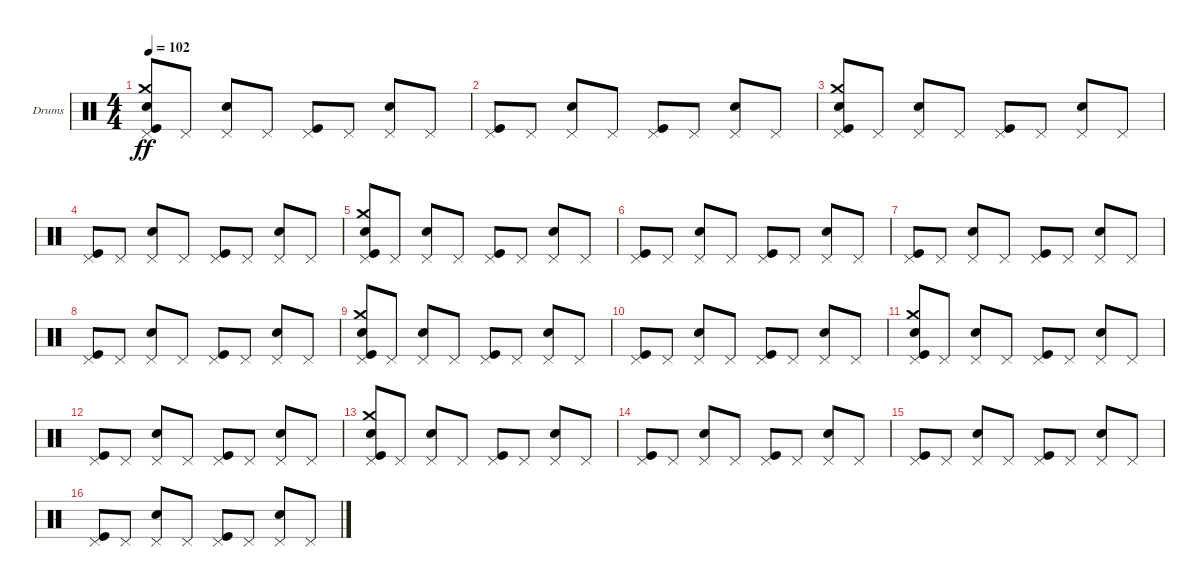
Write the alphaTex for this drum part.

\defaultSystemsLayout 4
\bracketExtendMode groupsimilarinstruments
\firstSystemTrackNameOrientation horizontal
\otherSystemsTrackNameOrientation horizontal
\track ("Е. Кулаков" "Drums") {instrument percussion}
\staff {score}
\articulation defaults
\ts (4 4)
\tempo 102
\clef neutral
\ks c
("Pedal Hi-Hat (hit)" "Kick (hit)" "Crash medium (hit)" "Snare (hit) 2").8{dy ff} "Pedal Hi-Hat (hit)".8 ("Pedal Hi-Hat (hit)" "Snare (hit) 2").8 "Pedal Hi-Hat (hit)".8 ("Pedal Hi-Hat (hit)" "Kick (hit)").8 "Pedal Hi-Hat (hit)".8 ("Pedal Hi-Hat (hit)" "Snare (hit) 2").8 "Pedal Hi-Hat (hit)".8 |
("Pedal Hi-Hat (hit)" "Kick (hit)").8 "Pedal Hi-Hat (hit)".8 ("Pedal Hi-Hat (hit)" "Snare (hit) 2").8 "Pedal Hi-Hat (hit)".8 ("Pedal Hi-Hat (hit)" "Kick (hit)").8 "Pedal Hi-Hat (hit)".8 ("Pedal Hi-Hat (hit)" "Snare (hit) 2").8 "Pedal Hi-Hat (hit)".8 |
("Pedal Hi-Hat (hit)" "Kick (hit)" "Crash medium (hit)" "Snare (hit) 2").8 "Pedal Hi-Hat (hit)".8 ("Pedal Hi-Hat (hit)" "Snare (hit) 2").8 "Pedal Hi-Hat (hit)".8 ("Pedal Hi-Hat (hit)" "Kick (hit)").8 "Pedal Hi-Hat (hit)".8 ("Pedal Hi-Hat (hit)" "Snare (hit) 2").8 "Pedal Hi-Hat (hit)".8 |
("Pedal Hi-Hat (hit)" "Kick (hit)").8 "Pedal Hi-Hat (hit)".8 ("Pedal Hi-Hat (hit)" "Snare (hit) 2").8 "Pedal Hi-Hat (hit)".8 ("Pedal Hi-Hat (hit)" "Kick (hit)").8 "Pedal Hi-Hat (hit)".8 ("Pedal Hi-Hat (hit)" "Snare (hit) 2").8 "Pedal Hi-Hat (hit)".8 |
("Pedal Hi-Hat (hit)" "Kick (hit)" "Snare (hit) 2" "Crash medium (hit)").8 "Pedal Hi-Hat (hit)".8 ("Pedal Hi-Hat (hit)" "Snare (hit) 2").8 "Pedal Hi-Hat (hit)".8 ("Pedal Hi-Hat (hit)" "Kick (hit)").8 "Pedal Hi-Hat (hit)".8 ("Pedal Hi-Hat (hit)" "Snare (hit) 2").8 "Pedal Hi-Hat (hit)".8 |
("Pedal Hi-Hat (hit)" "Kick (hit)").8 "Pedal Hi-Hat (hit)".8 ("Pedal Hi-Hat (hit)" "Snare (hit) 2").8 "Pedal Hi-Hat (hit)".8 ("Pedal Hi-Hat (hit)" "Kick (hit)").8 "Pedal Hi-Hat (hit)".8 ("Pedal Hi-Hat (hit)" "Snare (hit) 2").8 "Pedal Hi-Hat (hit)".8 |
("Pedal Hi-Hat (hit)" "Kick (hit)").8 "Pedal Hi-Hat (hit)".8 ("Pedal Hi-Hat (hit)" "Snare (hit) 2").8 "Pedal Hi-Hat (hit)".8 ("Pedal Hi-Hat (hit)" "Kick (hit)").8 "Pedal Hi-Hat (hit)".8 ("Pedal Hi-Hat (hit)" "Snare (hit) 2").8 "Pedal Hi-Hat (hit)".8 |
("Pedal Hi-Hat (hit)" "Kick (hit)").8 "Pedal Hi-Hat (hit)".8 ("Pedal Hi-Hat (hit)" "Snare (hit) 2").8 "Pedal Hi-Hat (hit)".8 ("Pedal Hi-Hat (hit)" "Kick (hit)").8 "Pedal Hi-Hat (hit)".8 ("Pedal Hi-Hat (hit)" "Snare (hit) 2").8 "Pedal Hi-Hat (hit)".8 |
("Pedal Hi-Hat (hit)" "Kick (hit)" "Crash medium (hit)" "Snare (hit) 2").8 "Pedal Hi-Hat (hit)".8 ("Pedal Hi-Hat (hit)" "Snare (hit) 2").8 "Pedal Hi-Hat (hit)".8 ("Pedal Hi-Hat (hit)" "Kick (hit)").8 "Pedal Hi-Hat (hit)".8 ("Pedal Hi-Hat (hit)" "Snare (hit) 2").8 "Pedal Hi-Hat (hit)".8 |
("Pedal Hi-Hat (hit)" "Kick (hit)").8 "Pedal Hi-Hat (hit)".8 ("Pedal Hi-Hat (hit)" "Snare (hit) 2").8 "Pedal Hi-Hat (hit)".8 ("Pedal Hi-Hat (hit)" "Kick (hit)").8 "Pedal Hi-Hat (hit)".8 ("Pedal Hi-Hat (hit)" "Snare (hit) 2").8 "Pedal Hi-Hat (hit)".8 |
("Pedal Hi-Hat (hit)" "Kick (hit)" "Crash medium (hit)" "Snare (hit) 2").8 "Pedal Hi-Hat (hit)".8 ("Pedal Hi-Hat (hit)" "Snare (hit) 2").8 "Pedal Hi-Hat (hit)".8 ("Pedal Hi-Hat (hit)" "Kick (hit)").8 "Pedal Hi-Hat (hit)".8 ("Pedal Hi-Hat (hit)" "Snare (hit) 2").8 "Pedal Hi-Hat (hit)".8 |
("Pedal Hi-Hat (hit)" "Kick (hit)").8 "Pedal Hi-Hat (hit)".8 ("Pedal Hi-Hat (hit)" "Snare (hit) 2").8 "Pedal Hi-Hat (hit)".8 ("Pedal Hi-Hat (hit)" "Kick (hit)").8 "Pedal Hi-Hat (hit)".8 ("Pedal Hi-Hat (hit)" "Snare (hit) 2").8 "Pedal Hi-Hat (hit)".8 |
("Pedal Hi-Hat (hit)" "Kick (hit)" "Snare (hit) 2" "Crash medium (hit)").8 "Pedal Hi-Hat (hit)".8 ("Pedal Hi-Hat (hit)" "Snare (hit) 2").8 "Pedal Hi-Hat (hit)".8 ("Pedal Hi-Hat (hit)" "Kick (hit)").8 "Pedal Hi-Hat (hit)".8 ("Pedal Hi-Hat (hit)" "Snare (hit) 2").8 "Pedal Hi-Hat (hit)".8 |
("Pedal Hi-Hat (hit)" "Kick (hit)").8 "Pedal Hi-Hat (hit)".8 ("Pedal Hi-Hat (hit)" "Snare (hit) 2").8 "Pedal Hi-Hat (hit)".8 ("Pedal Hi-Hat (hit)" "Kick (hit)").8 "Pedal Hi-Hat (hit)".8 ("Pedal Hi-Hat (hit)" "Snare (hit) 2").8 "Pedal Hi-Hat (hit)".8 |
("Pedal Hi-Hat (hit)" "Kick (hit)").8 "Pedal Hi-Hat (hit)".8 ("Pedal Hi-Hat (hit)" "Snare (hit) 2").8 "Pedal Hi-Hat (hit)".8 ("Pedal Hi-Hat (hit)" "Kick (hit)").8 "Pedal Hi-Hat (hit)".8 ("Pedal Hi-Hat (hit)" "Snare (hit) 2").8 "Pedal Hi-Hat (hit)".8 |
("Pedal Hi-Hat (hit)" "Kick (hit)").8 "Pedal Hi-Hat (hit)".8 ("Pedal Hi-Hat (hit)" "Snare (hit) 2").8 "Pedal Hi-Hat (hit)".8 ("Pedal Hi-Hat (hit)" "Kick (hit)").8 "Pedal Hi-Hat (hit)".8 ("Pedal Hi-Hat (hit)" "Snare (hit) 2").8 "Pedal Hi-Hat (hit)".8
